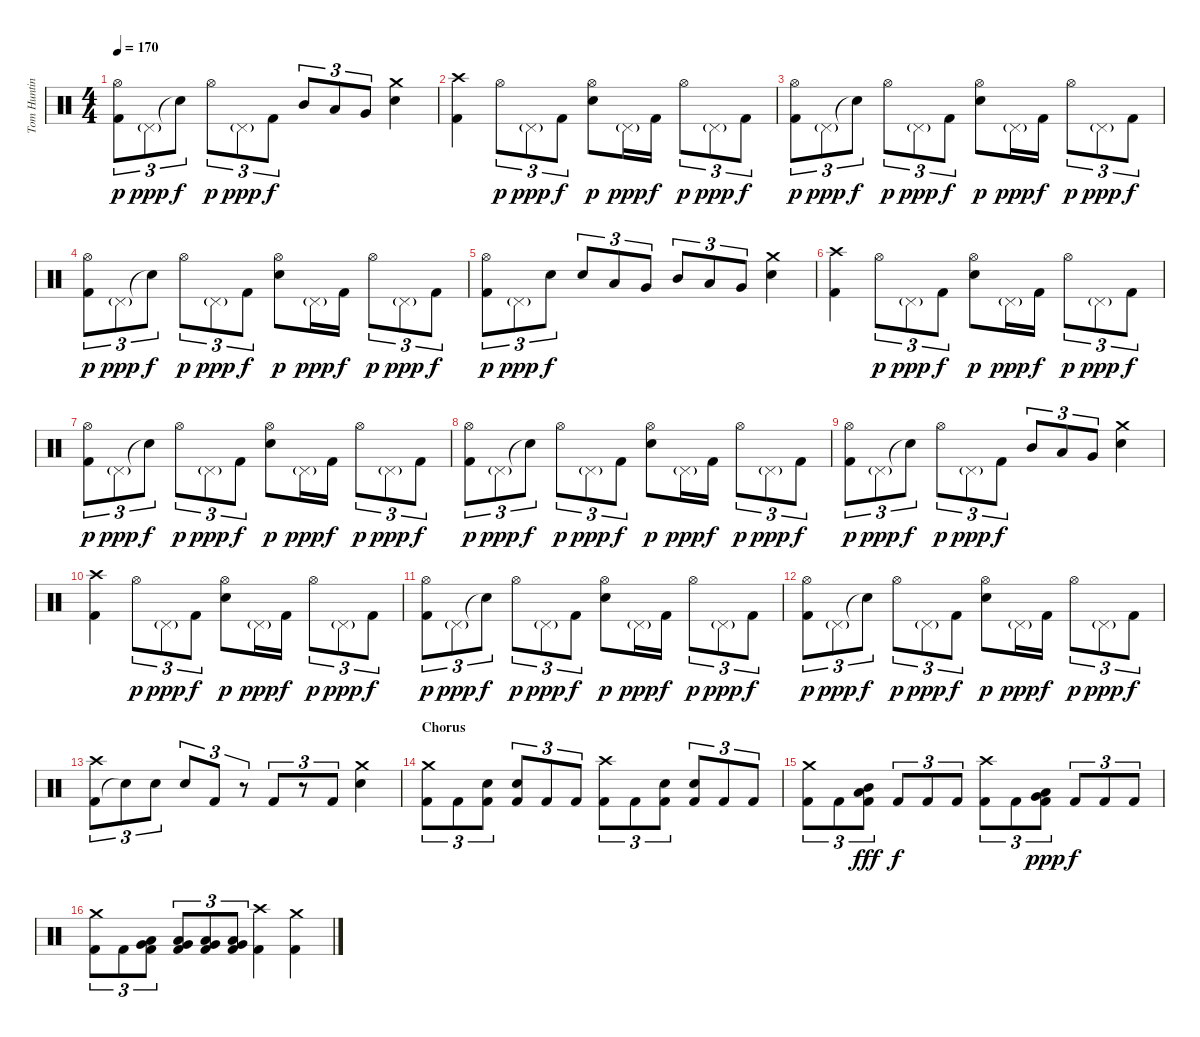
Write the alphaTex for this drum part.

\track ("Tom Hunting" "Tom Huntin") {instrument percussion}
\staff {score}
\articulation defaults
\ts (4 4)
\tempo 170
\clef neutral
\ks c
("Kick (hit) 2" "Hi-Hat (open)").8{tu (3 2) dy p} "Pedal Hi-Hat (hit)"{g}.8{tu (3 2) dy ppp} "Snare (hit)"{t}.8{tu (3 2) dy f} "Hi-Hat (open)".8{tu (3 2) dy p} "Pedal Hi-Hat (hit)"{g}.8{tu (3 2) dy ppp} "Kick (hit) 2".8{tu (3 2) dy f} "Mid Tom (hit)".8{tu (3 2)} "Low Tom (hit)".8{tu (3 2)} "Very Low Tom (hit)".8{tu (3 2)} ("Crash medium (hit)" "Snare (hit) 2").4 |
("Kick (hit) 2" "Crash high (hit)").4 "Hi-Hat (open)".8{tu (3 2) dy p} "Pedal Hi-Hat (hit)"{g}.8{tu (3 2) dy ppp} "Kick (hit) 2".8{tu (3 2) dy f} ("Hi-Hat (open)" "Snare (hit) 2").8{dy p} "Pedal Hi-Hat (hit)"{g}.16{dy ppp} "Kick (hit) 2".16{dy f} "Hi-Hat (open)".8{tu (3 2) dy p} "Pedal Hi-Hat (hit)"{g}.8{tu (3 2) dy ppp} "Kick (hit) 2".8{tu (3 2) dy f} |
("Kick (hit) 2" "Hi-Hat (open)").8{tu (3 2) dy p} "Pedal Hi-Hat (hit)"{g}.8{tu (3 2) dy ppp} "Snare (hit)"{t}.8{tu (3 2) dy f} "Hi-Hat (open)".8{tu (3 2) dy p} "Pedal Hi-Hat (hit)"{g}.8{tu (3 2) dy ppp} "Kick (hit) 2".8{tu (3 2) dy f} ("Hi-Hat (open)" "Snare (hit) 2").8{dy p} "Pedal Hi-Hat (hit)"{g}.16{dy ppp} "Kick (hit) 2".16{dy f} "Hi-Hat (open)".8{tu (3 2) dy p} "Pedal Hi-Hat (hit)"{g}.8{tu (3 2) dy ppp} "Kick (hit) 2".8{tu (3 2) dy f} |
("Kick (hit) 2" "Hi-Hat (open)").8{tu (3 2) dy p} "Pedal Hi-Hat (hit)"{g}.8{tu (3 2) dy ppp} "Snare (hit)"{t}.8{tu (3 2) dy f} "Hi-Hat (open)".8{tu (3 2) dy p} "Pedal Hi-Hat (hit)"{g}.8{tu (3 2) dy ppp} "Kick (hit) 2".8{tu (3 2) dy f} ("Hi-Hat (open)" "Snare (hit) 2").8{dy p} "Pedal Hi-Hat (hit)"{g}.16{dy ppp} "Kick (hit) 2".16{dy f} "Hi-Hat (open)".8{tu (3 2) dy p} "Pedal Hi-Hat (hit)"{g}.8{tu (3 2) dy ppp} "Kick (hit) 2".8{tu (3 2) dy f} |
("Kick (hit) 2" "Hi-Hat (open)").8{tu (3 2) dy p} "Pedal Hi-Hat (hit)"{g}.8{tu (3 2) dy ppp} "Snare (hit) 2".8{tu (3 2) dy f} "Snare (hit) 2".8{tu (3 2)} "Low Tom (hit)".8{tu (3 2)} "Very Low Tom (hit)".8{tu (3 2)} "Mid Tom (hit)".8{tu (3 2)} "Low Tom (hit)".8{tu (3 2)} "Very Low Tom (hit)".8{tu (3 2)} ("Crash medium (hit)" "Snare (hit) 2").4 |
("Kick (hit) 2" "Crash high (hit)").4 "Hi-Hat (open)".8{tu (3 2) dy p} "Pedal Hi-Hat (hit)"{g}.8{tu (3 2) dy ppp} "Kick (hit) 2".8{tu (3 2) dy f} ("Hi-Hat (open)" "Snare (hit) 2").8{dy p} "Pedal Hi-Hat (hit)"{g}.16{dy ppp} "Kick (hit) 2".16{dy f} "Hi-Hat (open)".8{tu (3 2) dy p} "Pedal Hi-Hat (hit)"{g}.8{tu (3 2) dy ppp} "Kick (hit) 2".8{tu (3 2) dy f} |
("Kick (hit) 2" "Hi-Hat (open)").8{tu (3 2) dy p} "Pedal Hi-Hat (hit)"{g}.8{tu (3 2) dy ppp} "Snare (hit)"{t}.8{tu (3 2) dy f} "Hi-Hat (open)".8{tu (3 2) dy p} "Pedal Hi-Hat (hit)"{g}.8{tu (3 2) dy ppp} "Kick (hit) 2".8{tu (3 2) dy f} ("Hi-Hat (open)" "Snare (hit) 2").8{dy p} "Pedal Hi-Hat (hit)"{g}.16{dy ppp} "Kick (hit) 2".16{dy f} "Hi-Hat (open)".8{tu (3 2) dy p} "Pedal Hi-Hat (hit)"{g}.8{tu (3 2) dy ppp} "Kick (hit) 2".8{tu (3 2) dy f} |
("Kick (hit) 2" "Hi-Hat (open)").8{tu (3 2) dy p} "Pedal Hi-Hat (hit)"{g}.8{tu (3 2) dy ppp} "Snare (hit)"{t}.8{tu (3 2) dy f} "Hi-Hat (open)".8{tu (3 2) dy p} "Pedal Hi-Hat (hit)"{g}.8{tu (3 2) dy ppp} "Kick (hit) 2".8{tu (3 2) dy f} ("Hi-Hat (open)" "Snare (hit) 2").8{dy p} "Pedal Hi-Hat (hit)"{g}.16{dy ppp} "Kick (hit) 2".16{dy f} "Hi-Hat (open)".8{tu (3 2) dy p} "Pedal Hi-Hat (hit)"{g}.8{tu (3 2) dy ppp} "Kick (hit) 2".8{tu (3 2) dy f} |
("Kick (hit) 2" "Hi-Hat (open)").8{tu (3 2) dy p} "Pedal Hi-Hat (hit)"{g}.8{tu (3 2) dy ppp} "Snare (hit)"{t}.8{tu (3 2) dy f} "Hi-Hat (open)".8{tu (3 2) dy p} "Pedal Hi-Hat (hit)"{g}.8{tu (3 2) dy ppp} "Kick (hit) 2".8{tu (3 2) dy f} "Mid Tom (hit)".8{tu (3 2)} "Low Tom (hit)".8{tu (3 2)} "Very Low Tom (hit)".8{tu (3 2)} ("Crash medium (hit)" "Snare (hit) 2").4 |
("Kick (hit) 2" "Crash high (hit)").4 "Hi-Hat (open)".8{tu (3 2) dy p} "Pedal Hi-Hat (hit)"{g}.8{tu (3 2) dy ppp} "Kick (hit) 2".8{tu (3 2) dy f} ("Hi-Hat (open)" "Snare (hit) 2").8{dy p} "Pedal Hi-Hat (hit)"{g}.16{dy ppp} "Kick (hit) 2".16{dy f} "Hi-Hat (open)".8{tu (3 2) dy p} "Pedal Hi-Hat (hit)"{g}.8{tu (3 2) dy ppp} "Kick (hit) 2".8{tu (3 2) dy f} |
("Kick (hit) 2" "Hi-Hat (open)").8{tu (3 2) dy p} "Pedal Hi-Hat (hit)"{g}.8{tu (3 2) dy ppp} "Snare (hit)"{t}.8{tu (3 2) dy f} "Hi-Hat (open)".8{tu (3 2) dy p} "Pedal Hi-Hat (hit)"{g}.8{tu (3 2) dy ppp} "Kick (hit) 2".8{tu (3 2) dy f} ("Hi-Hat (open)" "Snare (hit) 2").8{dy p} "Pedal Hi-Hat (hit)"{g}.16{dy ppp} "Kick (hit) 2".16{dy f} "Hi-Hat (open)".8{tu (3 2) dy p} "Pedal Hi-Hat (hit)"{g}.8{tu (3 2) dy ppp} "Kick (hit) 2".8{tu (3 2) dy f} |
("Kick (hit) 2" "Hi-Hat (open)").8{tu (3 2) dy p} "Pedal Hi-Hat (hit)"{g}.8{tu (3 2) dy ppp} "Snare (hit)"{t}.8{tu (3 2) dy f} "Hi-Hat (open)".8{tu (3 2) dy p} "Pedal Hi-Hat (hit)"{g}.8{tu (3 2) dy ppp} "Kick (hit) 2".8{tu (3 2) dy f} ("Hi-Hat (open)" "Snare (hit) 2").8{dy p} "Pedal Hi-Hat (hit)"{g}.16{dy ppp} "Kick (hit) 2".16{dy f} "Hi-Hat (open)".8{tu (3 2) dy p} "Pedal Hi-Hat (hit)"{g}.8{tu (3 2) dy ppp} "Kick (hit) 2".8{tu (3 2) dy f} |
("Kick (hit) 2" "Crash high (hit)").8{tu (3 2)} "Snare (hit)"{t}.8{tu (3 2)} "Snare (hit) 2".8{tu (3 2)} "Snare (hit) 2".8{tu (3 2)} "Kick (hit) 2".8{tu (3 2)} r.8{tu (3 2)} "Kick (hit) 2".8{tu (3 2)} r.8{tu (3 2)} "Kick (hit) 2".8{tu (3 2)} ("Crash medium (hit)" "Snare (hit) 2").4 |
\section ("" "Chorus")
("Kick (hit) 2" "Crash medium (hit)").8{tu (3 2)} "Kick (hit) 2".8{tu (3 2)} ("Kick (hit) 2" "Snare (hit) 2").8{tu (3 2)} ("Kick (hit) 2" "Snare (hit) 2").8{tu (3 2)} "Kick (hit) 2".8{tu (3 2)} "Kick (hit) 2".8{tu (3 2)} ("Kick (hit) 2" "Crash high (hit)").8{tu (3 2)} "Kick (hit) 2".8{tu (3 2)} ("Kick (hit) 2" "Snare (hit) 2").8{tu (3 2)} ("Kick (hit) 2" "Snare (hit) 2").8{tu (3 2)} "Kick (hit) 2".8{tu (3 2)} "Kick (hit) 2".8{tu (3 2)} |
("Kick (hit) 2" "Crash medium (hit)").8{tu (3 2)} "Kick (hit) 2".8{tu (3 2)} ("Kick (hit) 2" "Mid Tom (hit)" "Low Tom (hit)").8{tu (3 2) dy fff} "Kick (hit) 2".8{tu (3 2) dy f} "Kick (hit) 2".8{tu (3 2)} "Kick (hit) 2".8{tu (3 2)} ("Kick (hit) 2" "Crash high (hit)").8{tu (3 2)} "Kick (hit) 2".8{tu (3 2)} ("Kick (hit) 2" "Low Tom (hit)" "Very Low Tom (hit)").8{tu (3 2) dy ppp} "Kick (hit) 2".8{tu (3 2) dy f} "Kick (hit) 2".8{tu (3 2)} "Kick (hit) 2".8{tu (3 2)} |
("Kick (hit) 2" "Crash medium (hit)").8{tu (3 2)} "Kick (hit) 2".8{tu (3 2)} ("Kick (hit) 2" "Very Low Tom (hit)" "Low Floor Tom (hit)").8{tu (3 2)} ("Kick (hit) 2" "Very Low Tom (hit)" "Low Floor Tom (hit)").8{tu (3 2)} ("Kick (hit) 2" "Very Low Tom (hit)" "Low Floor Tom (hit)").8{tu (3 2)} ("Kick (hit) 2" "Very Low Tom (hit)" "Low Floor Tom (hit)").8{tu (3 2)} ("Kick (hit) 2" "Crash high (hit)").4 ("Kick (hit) 2" "Crash medium (hit)").4
